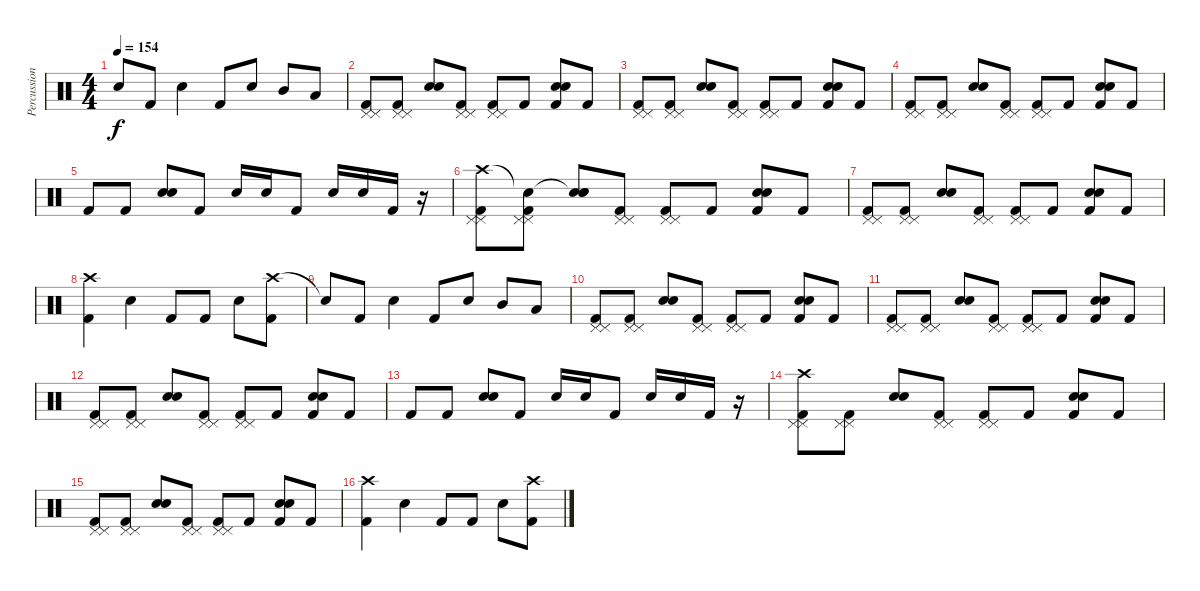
\track ("Percussion" "Percussion") {instrument percussion}
\staff {score}
\articulation defaults
\ts (4 4)
\tempo 154
\clef neutral
\ks c "Snare (hit)"{t}.8{dy f} "Kick (hit) 2".8 "Electric Snare (hit)".4 "Kick (hit) 2".8 "Electric Snare (hit)".8 "Mid Tom (hit)".8 "Low Tom (hit)".8
|
("Pedal Hi-Hat (hit)" "Pedal Hi-Hat (hit)" "Kick (hit) 2").8 ("Pedal Hi-Hat (hit)" "Pedal Hi-Hat (hit)" "Kick (hit) 2").8 ("Electric Snare (hit)" "Electric Snare (hit)").8 ("Pedal Hi-Hat (hit)" "Pedal Hi-Hat (hit)" "Kick (hit) 2").8 ("Pedal Hi-Hat (hit)" "Pedal Hi-Hat (hit)" "Kick (hit) 2").8 "Kick (hit) 2".8 ("Electric Snare (hit)" "Electric Snare (hit)" "Kick (hit) 2").8 "Kick (hit) 2".8 |
("Pedal Hi-Hat (hit)" "Pedal Hi-Hat (hit)" "Kick (hit) 2").8 ("Pedal Hi-Hat (hit)" "Pedal Hi-Hat (hit)" "Kick (hit) 2").8 ("Electric Snare (hit)" "Electric Snare (hit)").8 ("Pedal Hi-Hat (hit)" "Pedal Hi-Hat (hit)" "Kick (hit) 2").8 ("Pedal Hi-Hat (hit)" "Pedal Hi-Hat (hit)" "Kick (hit) 2").8 "Kick (hit) 2".8 ("Electric Snare (hit)" "Electric Snare (hit)" "Kick (hit) 2").8 "Kick (hit) 2".8 |
("Pedal Hi-Hat (hit)" "Pedal Hi-Hat (hit)" "Kick (hit) 2").8 ("Pedal Hi-Hat (hit)" "Pedal Hi-Hat (hit)" "Kick (hit) 2").8 ("Electric Snare (hit)" "Electric Snare (hit)").8 ("Pedal Hi-Hat (hit)" "Pedal Hi-Hat (hit)" "Kick (hit) 2").8 ("Pedal Hi-Hat (hit)" "Pedal Hi-Hat (hit)" "Kick (hit) 2").8 "Kick (hit) 2".8 ("Electric Snare (hit)" "Electric Snare (hit)" "Kick (hit) 2").8 "Kick (hit) 2".8 |
"Kick (hit) 2".8 "Kick (hit) 2".8 ("Electric Snare (hit)" "Electric Snare (hit)").8 "Kick (hit) 2".8 "Electric Snare (hit)".16 "Electric Snare (hit)".16 "Kick (hit) 2".8 "Electric Snare (hit)".16 "Electric Snare (hit)".16 "Kick (hit) 2".16 r.16 |
("Pedal Hi-Hat (hit)" "Pedal Hi-Hat (hit)" "Crash high (hit)" "Kick (hit) 2").8 ("Pedal Hi-Hat (hit)" "Pedal Hi-Hat (hit)" "Snare (hit)"{t} "Kick (hit) 2").8 ("Electric Snare (hit)" "Electric Snare (hit)" "Snare (hit)"{t}).8 ("Pedal Hi-Hat (hit)" "Pedal Hi-Hat (hit)" "Kick (hit) 2").8 ("Pedal Hi-Hat (hit)" "Pedal Hi-Hat (hit)" "Kick (hit) 2").8 "Kick (hit) 2".8 ("Electric Snare (hit)" "Electric Snare (hit)" "Kick (hit) 2").8 "Kick (hit) 2".8 |
("Pedal Hi-Hat (hit)" "Pedal Hi-Hat (hit)" "Kick (hit) 2").8 ("Pedal Hi-Hat (hit)" "Pedal Hi-Hat (hit)" "Kick (hit) 2").8 ("Electric Snare (hit)" "Electric Snare (hit)").8 ("Pedal Hi-Hat (hit)" "Pedal Hi-Hat (hit)" "Kick (hit) 2").8 ("Pedal Hi-Hat (hit)" "Pedal Hi-Hat (hit)" "Kick (hit) 2").8 "Kick (hit) 2".8 ("Electric Snare (hit)" "Electric Snare (hit)" "Kick (hit) 2").8 "Kick (hit) 2".8 |
("Crash high (hit)" "Kick (hit) 2").4 "Electric Snare (hit)".4 "Kick (hit) 2".8 "Kick (hit) 2".8 "Electric Snare (hit)".8 ("Crash high (hit)" "Kick (hit) 2").8 |
"Snare (hit)"{t}.8 "Kick (hit) 2".8 "Electric Snare (hit)".4 "Kick (hit) 2".8 "Electric Snare (hit)".8 "Mid Tom (hit)".8 "Low Tom (hit)".8 |
("Pedal Hi-Hat (hit)" "Pedal Hi-Hat (hit)" "Kick (hit) 2").8 ("Pedal Hi-Hat (hit)" "Pedal Hi-Hat (hit)" "Kick (hit) 2").8 ("Electric Snare (hit)" "Electric Snare (hit)").8 ("Pedal Hi-Hat (hit)" "Pedal Hi-Hat (hit)" "Kick (hit) 2").8 ("Pedal Hi-Hat (hit)" "Pedal Hi-Hat (hit)" "Kick (hit) 2").8 "Kick (hit) 2".8 ("Electric Snare (hit)" "Electric Snare (hit)" "Kick (hit) 2").8 "Kick (hit) 2".8 |
("Pedal Hi-Hat (hit)" "Pedal Hi-Hat (hit)" "Kick (hit) 2").8 ("Pedal Hi-Hat (hit)" "Pedal Hi-Hat (hit)" "Kick (hit) 2").8 ("Electric Snare (hit)" "Electric Snare (hit)").8 ("Pedal Hi-Hat (hit)" "Pedal Hi-Hat (hit)" "Kick (hit) 2").8 ("Pedal Hi-Hat (hit)" "Pedal Hi-Hat (hit)" "Kick (hit) 2").8 "Kick (hit) 2".8 ("Electric Snare (hit)" "Electric Snare (hit)" "Kick (hit) 2").8 "Kick (hit) 2".8 |
("Pedal Hi-Hat (hit)" "Pedal Hi-Hat (hit)" "Kick (hit) 2").8 ("Pedal Hi-Hat (hit)" "Pedal Hi-Hat (hit)" "Kick (hit) 2").8 ("Electric Snare (hit)" "Electric Snare (hit)").8 ("Pedal Hi-Hat (hit)" "Pedal Hi-Hat (hit)" "Kick (hit) 2").8 ("Pedal Hi-Hat (hit)" "Pedal Hi-Hat (hit)" "Kick (hit) 2").8 "Kick (hit) 2".8 ("Electric Snare (hit)" "Electric Snare (hit)" "Kick (hit) 2").8 "Kick (hit) 2".8 |
"Kick (hit) 2".8 "Kick (hit) 2".8 ("Electric Snare (hit)" "Electric Snare (hit)").8 "Kick (hit) 2".8 "Electric Snare (hit)".16 "Electric Snare (hit)".16 "Kick (hit) 2".8 "Electric Snare (hit)".16 "Electric Snare (hit)".16 "Kick (hit) 2".16 r.16 |
("Pedal Hi-Hat (hit)" "Pedal Hi-Hat (hit)" "Crash high (hit)" "Kick (hit) 2").8 ("Pedal Hi-Hat (hit)" "Pedal Hi-Hat (hit)" "Kick (hit) 2").8 ("Electric Snare (hit)" "Electric Snare (hit)").8 ("Pedal Hi-Hat (hit)" "Pedal Hi-Hat (hit)" "Kick (hit) 2").8 ("Pedal Hi-Hat (hit)" "Pedal Hi-Hat (hit)" "Kick (hit) 2").8 "Kick (hit) 2".8 ("Electric Snare (hit)" "Electric Snare (hit)" "Kick (hit) 2").8 "Kick (hit) 2".8 |
("Pedal Hi-Hat (hit)" "Pedal Hi-Hat (hit)" "Kick (hit) 2").8 ("Pedal Hi-Hat (hit)" "Pedal Hi-Hat (hit)" "Kick (hit) 2").8 ("Electric Snare (hit)" "Electric Snare (hit)").8 ("Pedal Hi-Hat (hit)" "Pedal Hi-Hat (hit)" "Kick (hit) 2").8 ("Pedal Hi-Hat (hit)" "Pedal Hi-Hat (hit)" "Kick (hit) 2").8 "Kick (hit) 2".8 ("Electric Snare (hit)" "Electric Snare (hit)" "Kick (hit) 2").8 "Kick (hit) 2".8 |
("Crash high (hit)" "Kick (hit) 2").4 "Electric Snare (hit)".4 "Kick (hit) 2".8 "Kick (hit) 2".8 "Electric Snare (hit)".8 ("Crash high (hit)" "Kick (hit) 2").8
